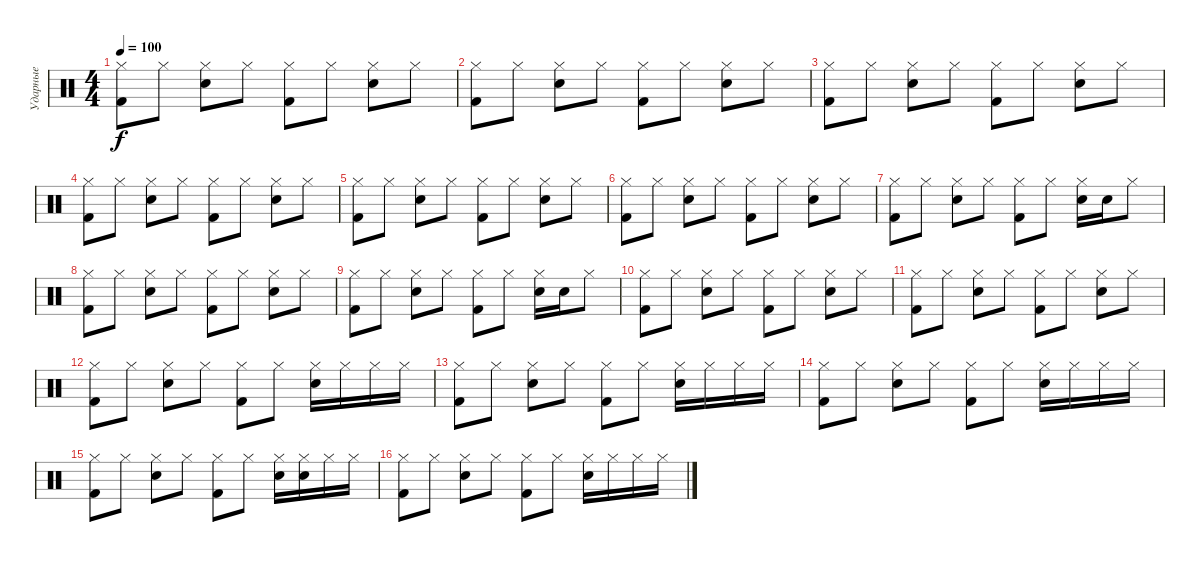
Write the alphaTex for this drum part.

\track ("Ударные" "Ударные") {instrument percussion}
\staff {score}
\articulation defaults
\ts (4 4)
\tempo 100
\clef neutral
\ks c
("Hi-Hat (closed)" "Kick (hit) 2").8{dy f} "Hi-Hat (closed)".8 ("Electric Snare (hit)" "Hi-Hat (closed)").8 "Hi-Hat (closed)".8 ("Hi-Hat (closed)" "Kick (hit) 2").8 "Hi-Hat (closed)".8 ("Electric Snare (hit)" "Hi-Hat (closed)").8 "Hi-Hat (closed)".8 |
("Hi-Hat (closed)" "Kick (hit) 2").8 "Hi-Hat (closed)".8 ("Electric Snare (hit)" "Hi-Hat (closed)").8 "Hi-Hat (closed)".8 ("Hi-Hat (closed)" "Kick (hit) 2").8 "Hi-Hat (closed)".8 ("Electric Snare (hit)" "Hi-Hat (closed)").8 "Hi-Hat (closed)".8 |
("Hi-Hat (closed)" "Kick (hit) 2").8 "Hi-Hat (closed)".8 ("Electric Snare (hit)" "Hi-Hat (closed)").8 "Hi-Hat (closed)".8 ("Hi-Hat (closed)" "Kick (hit) 2").8 "Hi-Hat (closed)".8 ("Electric Snare (hit)" "Hi-Hat (closed)").8 "Hi-Hat (closed)".8 |
("Hi-Hat (closed)" "Kick (hit) 2").8 "Hi-Hat (closed)".8 ("Electric Snare (hit)" "Hi-Hat (closed)").8 "Hi-Hat (closed)".8 ("Hi-Hat (closed)" "Kick (hit) 2").8 "Hi-Hat (closed)".8 ("Electric Snare (hit)" "Hi-Hat (closed)").8 "Hi-Hat (closed)".8 |
("Hi-Hat (closed)" "Kick (hit) 2").8 "Hi-Hat (closed)".8 ("Electric Snare (hit)" "Hi-Hat (closed)").8 "Hi-Hat (closed)".8 ("Hi-Hat (closed)" "Kick (hit) 2").8 "Hi-Hat (closed)".8 ("Electric Snare (hit)" "Hi-Hat (closed)").8 "Hi-Hat (closed)".8 |
("Hi-Hat (closed)" "Kick (hit) 2").8 "Hi-Hat (closed)".8 ("Electric Snare (hit)" "Hi-Hat (closed)").8 "Hi-Hat (closed)".8 ("Hi-Hat (closed)" "Kick (hit) 2").8 "Hi-Hat (closed)".8 ("Electric Snare (hit)" "Hi-Hat (closed)").8 "Hi-Hat (closed)".8 |
("Hi-Hat (closed)" "Kick (hit) 2").8 "Hi-Hat (closed)".8 ("Electric Snare (hit)" "Hi-Hat (closed)").8 "Hi-Hat (closed)".8 ("Hi-Hat (closed)" "Kick (hit) 2").8 "Hi-Hat (closed)".8 ("Electric Snare (hit)" "Hi-Hat (closed)").16 "Electric Snare (hit)".16 "Hi-Hat (closed)".8 |
("Hi-Hat (closed)" "Kick (hit) 2").8 "Hi-Hat (closed)".8 ("Electric Snare (hit)" "Hi-Hat (closed)").8 "Hi-Hat (closed)".8 ("Hi-Hat (closed)" "Kick (hit) 2").8 "Hi-Hat (closed)".8 ("Electric Snare (hit)" "Hi-Hat (closed)").8 "Hi-Hat (closed)".8 |
("Hi-Hat (closed)" "Kick (hit) 2").8 "Hi-Hat (closed)".8 ("Electric Snare (hit)" "Hi-Hat (closed)").8 "Hi-Hat (closed)".8 ("Hi-Hat (closed)" "Kick (hit) 2").8 "Hi-Hat (closed)".8 ("Electric Snare (hit)" "Hi-Hat (closed)").16 "Electric Snare (hit)".16 "Hi-Hat (closed)".8 |
("Hi-Hat (closed)" "Kick (hit) 2").8 "Hi-Hat (closed)".8 ("Electric Snare (hit)" "Hi-Hat (closed)").8 "Hi-Hat (closed)".8 ("Hi-Hat (closed)" "Kick (hit) 2").8 "Hi-Hat (closed)".8 ("Electric Snare (hit)" "Hi-Hat (closed)").8 "Hi-Hat (closed)".8 |
("Hi-Hat (closed)" "Kick (hit) 2").8 "Hi-Hat (closed)".8 ("Electric Snare (hit)" "Hi-Hat (closed)").8 "Hi-Hat (closed)".8 ("Hi-Hat (closed)" "Kick (hit) 2").8 "Hi-Hat (closed)".8 ("Electric Snare (hit)" "Hi-Hat (closed)").8 "Hi-Hat (closed)".8 |
("Hi-Hat (closed)" "Kick (hit) 2").8 "Hi-Hat (closed)".8 ("Electric Snare (hit)" "Hi-Hat (closed)").8 "Hi-Hat (closed)".8 ("Hi-Hat (closed)" "Kick (hit) 2").8 "Hi-Hat (closed)".8 ("Electric Snare (hit)" "Hi-Hat (closed)").16 "Hi-Hat (closed)".16 "Hi-Hat (closed)".16 "Hi-Hat (closed)".16 |
("Hi-Hat (closed)" "Kick (hit) 2").8 "Hi-Hat (closed)".8 ("Electric Snare (hit)" "Hi-Hat (closed)").8 "Hi-Hat (closed)".8 ("Hi-Hat (closed)" "Kick (hit) 2").8 "Hi-Hat (closed)".8 ("Electric Snare (hit)" "Hi-Hat (closed)").16 "Hi-Hat (closed)".16 "Hi-Hat (closed)".16 "Hi-Hat (closed)".16 |
("Hi-Hat (closed)" "Kick (hit) 2").8 "Hi-Hat (closed)".8 ("Electric Snare (hit)" "Hi-Hat (closed)").8 "Hi-Hat (closed)".8 ("Hi-Hat (closed)" "Kick (hit) 2").8 "Hi-Hat (closed)".8 ("Electric Snare (hit)" "Hi-Hat (closed)").16 "Hi-Hat (closed)".16 "Hi-Hat (closed)".16 "Hi-Hat (closed)".16 |
("Hi-Hat (closed)" "Kick (hit) 2").8 "Hi-Hat (closed)".8 ("Electric Snare (hit)" "Hi-Hat (closed)").8 "Hi-Hat (closed)".8 ("Hi-Hat (closed)" "Kick (hit) 2").8 "Hi-Hat (closed)".8 ("Electric Snare (hit)" "Hi-Hat (closed)").16 ("Electric Snare (hit)" "Hi-Hat (closed)").16 "Hi-Hat (closed)".16 "Hi-Hat (closed)".16 |
("Hi-Hat (closed)" "Kick (hit) 2").8 "Hi-Hat (closed)".8 ("Electric Snare (hit)" "Hi-Hat (closed)").8 "Hi-Hat (closed)".8 ("Hi-Hat (closed)" "Kick (hit) 2").8 "Hi-Hat (closed)".8 ("Electric Snare (hit)" "Hi-Hat (closed)").16 "Hi-Hat (closed)".16 "Hi-Hat (closed)".16 "Hi-Hat (closed)".16
